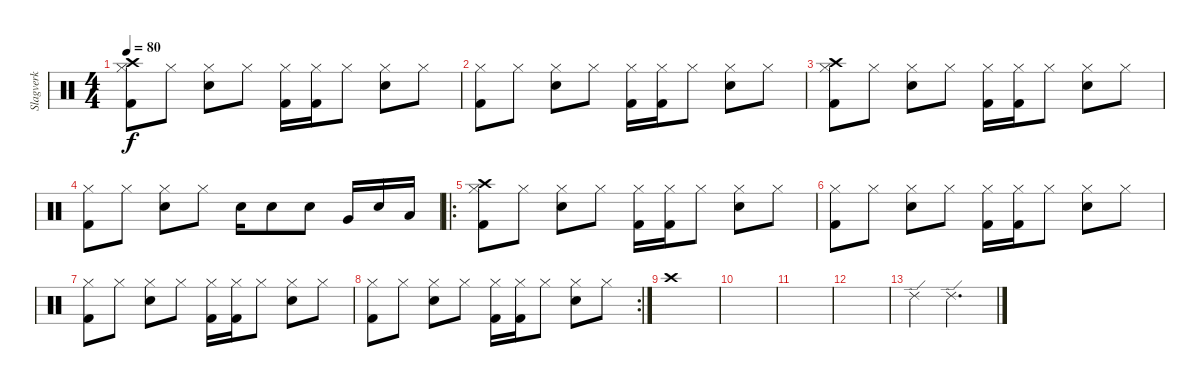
\track ("Slagverk" "Slagverk") {instrument percussion}
\staff {score}
\articulation defaults
\ts (4 4)
\tempo 80
\clef neutral
\ks c
("Crash high (hit)" "Hi-Hat (closed)" "Kick (hit) 2").8{dy f} "Hi-Hat (closed)".8 ("Hi-Hat (closed)" "Electric Snare (hit)").8 "Hi-Hat (closed)".8 ("Hi-Hat (closed)" "Kick (hit) 2").16 ("Hi-Hat (closed)" "Kick (hit) 2").16 "Hi-Hat (closed)".8 ("Hi-Hat (closed)" "Electric Snare (hit)").8 "Hi-Hat (closed)".8 |
("Hi-Hat (closed)" "Kick (hit) 2").8 "Hi-Hat (closed)".8 ("Hi-Hat (closed)" "Electric Snare (hit)").8 "Hi-Hat (closed)".8 ("Hi-Hat (closed)" "Kick (hit) 2").16 ("Hi-Hat (closed)" "Kick (hit) 2").16 "Hi-Hat (closed)".8 ("Hi-Hat (closed)" "Electric Snare (hit)").8 "Hi-Hat (closed)".8 |
("Crash high (hit)" "Hi-Hat (closed)" "Kick (hit) 2").8 "Hi-Hat (closed)".8 ("Hi-Hat (closed)" "Electric Snare (hit)").8 "Hi-Hat (closed)".8 ("Hi-Hat (closed)" "Kick (hit) 2").16 ("Hi-Hat (closed)" "Kick (hit) 2").16 "Hi-Hat (closed)".8 ("Hi-Hat (closed)" "Electric Snare (hit)").8 "Hi-Hat (closed)".8 |
("Hi-Hat (closed)" "Kick (hit) 2").8 "Hi-Hat (closed)".8 ("Hi-Hat (closed)" "Electric Snare (hit)").8 "Hi-Hat (closed)".8 "Electric Snare (hit)".16 "Electric Snare (hit)".8 "Electric Snare (hit)".8 "Very Low Tom (hit)".16 "Electric Snare (hit)".16 "Low Floor Tom (hit)".16 |
\ro
("Crash high (hit)" "Hi-Hat (closed)" "Kick (hit) 2").8 "Hi-Hat (closed)".8 ("Hi-Hat (closed)" "Electric Snare (hit)").8 "Hi-Hat (closed)".8 ("Hi-Hat (closed)" "Kick (hit) 2").16 ("Hi-Hat (closed)" "Kick (hit) 2").16 "Hi-Hat (closed)".8 ("Hi-Hat (closed)" "Electric Snare (hit)").8 "Hi-Hat (closed)".8 |
("Hi-Hat (closed)" "Kick (hit) 2").8 "Hi-Hat (closed)".8 ("Hi-Hat (closed)" "Electric Snare (hit)").8 "Hi-Hat (closed)".8 ("Hi-Hat (closed)" "Kick (hit) 2").16 ("Hi-Hat (closed)" "Kick (hit) 2").16 "Hi-Hat (closed)".8 ("Hi-Hat (closed)" "Electric Snare (hit)").8 "Hi-Hat (closed)".8 |
("Hi-Hat (closed)" "Kick (hit) 2").8 "Hi-Hat (closed)".8 ("Hi-Hat (closed)" "Electric Snare (hit)").8 "Hi-Hat (closed)".8 ("Hi-Hat (closed)" "Kick (hit) 2").16 ("Hi-Hat (closed)" "Kick (hit) 2").16 "Hi-Hat (closed)".8 ("Hi-Hat (closed)" "Electric Snare (hit)").8 "Hi-Hat (closed)".8 |
\rc 2
("Hi-Hat (closed)" "Kick (hit) 2").8 "Hi-Hat (closed)".8 ("Hi-Hat (closed)" "Electric Snare (hit)").8 "Hi-Hat (closed)".8 ("Hi-Hat (closed)" "Kick (hit) 2").16 ("Hi-Hat (closed)" "Kick (hit) 2").16 "Hi-Hat (closed)".8 ("Hi-Hat (closed)" "Electric Snare (hit)").8 "Hi-Hat (closed)".8 |
"Crash high (hit)".1 |
|
|
|
"Ride (edge) 2".4 "Ride (edge) 2".2{d}
